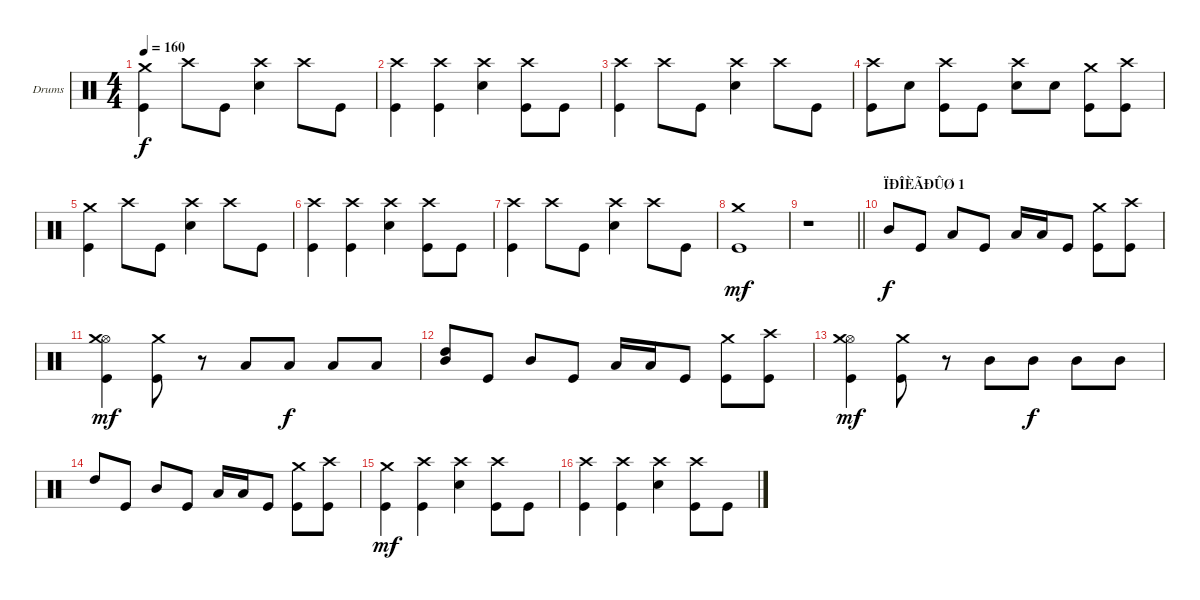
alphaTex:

\bracketExtendMode groupsimilarinstruments
\firstSystemTrackNameOrientation horizontal
\otherSystemsTrackNameOrientation horizontal
\track ("Drumkit" "Drums") {instrument percussion}
\staff {score}
\articulation defaults
\ts (4 4)
\tempo 160
\clef neutral
\ks c
("Kick (hit)" "Crash medium (hit)").4{dy f} "Crash high (hit)".8 "Kick (hit)".8 ("Crash high (hit)" "Snare (hit) 2").4 "Crash high (hit)".8 "Kick (hit)".8 |
("Crash high (hit)" "Kick (hit)").4 ("Crash high (hit)" "Kick (hit)").4 ("Crash high (hit)" "Snare (hit) 2").4 ("Crash high (hit)" "Kick (hit)").8 "Kick (hit)".8 |
("Kick (hit)" "Crash high (hit)").4 "Crash high (hit)".8 "Kick (hit)".8 ("Crash high (hit)" "Snare (hit) 2").4 "Crash high (hit)".8 "Kick (hit)".8 |
("Crash high (hit)" "Kick (hit)").8 "Snare (hit) 2".8 ("Crash high (hit)" "Kick (hit)").8 "Kick (hit)".8 ("Crash high (hit)" "Snare (hit) 2").8 "Snare (hit) 2".8 ("Crash medium (hit)" "Kick (hit)").8 ("Crash high (hit)" "Kick (hit)").8 |
("Kick (hit)" "Crash medium (hit)").4 "Crash high (hit)".8 "Kick (hit)".8 ("Crash high (hit)" "Snare (hit) 2").4 "Crash high (hit)".8 "Kick (hit)".8 |
("Crash high (hit)" "Kick (hit)").4 ("Crash high (hit)" "Kick (hit)").4 ("Crash high (hit)" "Snare (hit) 2").4 ("Crash high (hit)" "Kick (hit)").8 "Kick (hit)".8 |
("Kick (hit)" "Crash high (hit)").4 "Crash high (hit)".8 "Kick (hit)".8 ("Crash high (hit)" "Snare (hit) 2").4 "Crash high (hit)".8 "Kick (hit)".8 |
("Crash medium (hit)" "Kick (hit)").1{dy mf} |
\barLineRight lightlight
r.1 |
\section ("" "ÏÐÎÈÃÐÛØ 1")
"Mid Tom (hit)".8{dy f} "Kick (hit)".8 "Low Tom (hit)".8 "Kick (hit)".8 "Low Tom (hit)".16 "Low Tom (hit)".16 "Kick (hit)".8 ("Crash medium (hit)" "Kick (hit)").8 ("Crash high (hit)" "Kick (hit)").8 |
("Hi-Hat (open)" "Kick (hit)" "Crash medium (hit)").4{dy mf} ("Crash medium (hit)" "Kick (hit)").8 r.8 "Low Tom (hit)".8 "Low Tom (hit)".8{dy f} "Low Tom (hit)".8 "Low Tom (hit)".8 |
("Mid Tom (hit)" "High Tom (hit)").8 "Kick (hit)".8 "Mid Tom (hit)".8 "Kick (hit)".8 "Low Tom (hit)".16 "Low Tom (hit)".16 "Kick (hit)".8 ("Crash medium (hit)" "Kick (hit)").8 ("Crash high (hit)" "Kick (hit)").8 |
("Hi-Hat (open)" "Kick (hit)" "Crash medium (hit)").4{dy mf} ("Crash medium (hit)" "Kick (hit)").8 r.8 "Mid Tom (hit)".8 "Mid Tom (hit)".8{dy f} "Mid Tom (hit)".8 "Mid Tom (hit)".8 |
"High Tom (hit)".8 "Kick (hit)".8 "Mid Tom (hit)".8 "Kick (hit)".8 "Low Tom (hit)".16 "Low Tom (hit)".16 "Kick (hit)".8 ("Crash medium (hit)" "Kick (hit)").8 ("Crash high (hit)" "Kick (hit)").8 |
("Kick (hit)" "Crash medium (hit)").4{dy mf} ("Crash high (hit)" "Kick (hit)").4 ("Crash high (hit)" "Snare (hit) 2").4 ("Crash high (hit)" "Kick (hit)").8 "Kick (hit)".8 |
("Kick (hit)" "Crash high (hit)").4 ("Crash high (hit)" "Kick (hit)").4 ("Crash high (hit)" "Snare (hit) 2").4 ("Crash high (hit)" "Kick (hit)").8 "Kick (hit)".8
